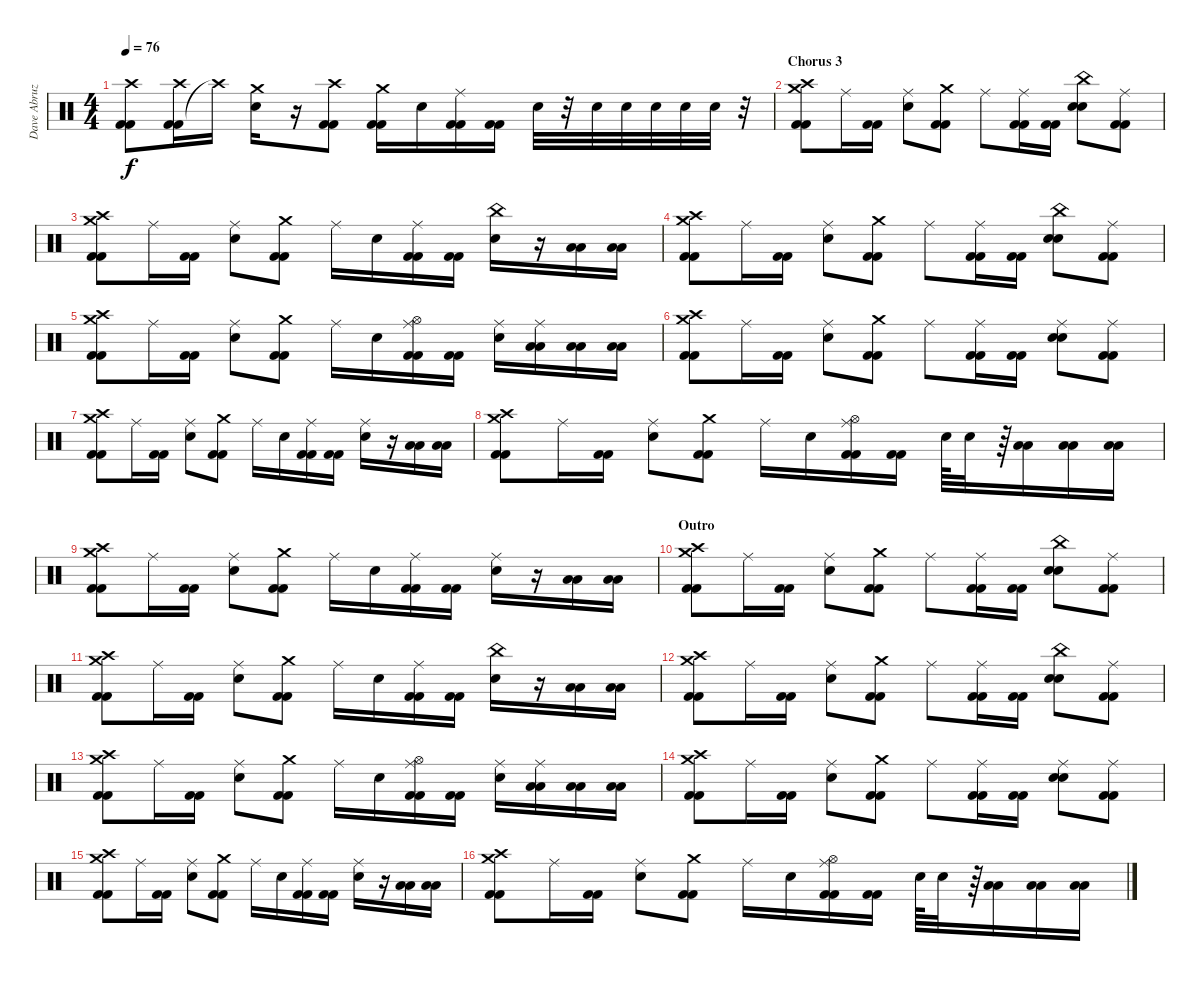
\track ("Dave Abruzzese" "Dave Abruz") {instrument percussion}
\staff {score}
\articulation defaults
\ts (4 4)
\tempo 76
\clef neutral
\ks c
("Kick (hit) 2" "Kick (hit) 2" "Crash high (hit)").8{dy f} ("Kick (hit) 2" "Kick (hit) 2" "Crash high (hit)").16 "Crash high (hit)"{t}.16 ("Snare (hit) 2" "Crash medium (hit)").16 r.16 ("Kick (hit) 2" "Kick (hit) 2" "Crash high (hit)").8 ("Kick (hit) 2" "Kick (hit) 2" "Crash medium (hit)").16 "Snare (hit) 2".16 ("Kick (hit) 2" "Kick (hit) 2" "Ride (middle)").16 ("Kick (hit) 2" "Kick (hit) 2").16 "Snare (hit) 2".32 r.32 "Snare (hit) 2".32 "Snare (hit) 2".32 "Snare (hit) 2".32 "Snare (hit) 2".32 "Snare (hit) 2".32 r.32 |
\section ("" "Chorus 3")
("Crash medium (hit)" "Kick (hit) 2" "Kick (hit) 2" "Crash high (hit)").8 "Ride (middle)".16 ("Kick (hit) 2" "Kick (hit) 2").16 ("Snare (hit) 2" "Ride (middle)").8 ("Kick (hit) 2" "Kick (hit) 2" "Crash medium (hit)").8 "Ride (middle)".8 ("Kick (hit) 2" "Kick (hit) 2" "Ride (middle)").16 ("Kick (hit) 2" "Kick (hit) 2").16 ("Snare (hit) 2" "Snare (hit) 2" "China (hit)").8 ("Kick (hit) 2" "Kick (hit) 2" "Ride (middle)").8 |
("Crash medium (hit)" "Kick (hit) 2" "Kick (hit) 2" "Crash high (hit)").8 "Ride (middle)".16 ("Kick (hit) 2" "Kick (hit) 2").16 ("Snare (hit) 2" "Ride (middle)").8 ("Kick (hit) 2" "Kick (hit) 2" "Crash medium (hit)").8 "Ride (middle)".16 "Snare (hit) 2".16 ("Kick (hit) 2" "Kick (hit) 2" "Ride (middle)").16 ("Kick (hit) 2" "Kick (hit) 2").16 ("Snare (hit) 2" "China (hit)").16 r.16 ("Low Tom (hit)" "Low Tom (hit)").16 ("Low Tom (hit)" "Low Tom (hit)").16 |
("Crash medium (hit)" "Kick (hit) 2" "Kick (hit) 2" "Crash high (hit)").8 "Ride (middle)".16 ("Kick (hit) 2" "Kick (hit) 2").16 ("Snare (hit) 2" "Ride (middle)").8 ("Kick (hit) 2" "Kick (hit) 2" "Crash medium (hit)").8 "Ride (middle)".8 ("Kick (hit) 2" "Kick (hit) 2" "Ride (middle)").16 ("Kick (hit) 2" "Kick (hit) 2").16 ("Snare (hit) 2" "Snare (hit) 2" "China (hit)").8 ("Kick (hit) 2" "Kick (hit) 2" "Ride (middle)").8 |
("Crash medium (hit)" "Kick (hit) 2" "Kick (hit) 2" "Crash high (hit)").8 "Ride (middle)".16 ("Kick (hit) 2" "Kick (hit) 2").16 ("Snare (hit) 2" "Ride (middle)").8 ("Kick (hit) 2" "Kick (hit) 2" "Crash medium (hit)").8 "Ride (middle)".16 "Snare (hit) 2".16 ("Hi-Hat (open)" "Kick (hit) 2" "Kick (hit) 2" "Ride (middle)").16 ("Kick (hit) 2" "Kick (hit) 2").16 ("Snare (hit) 2" "Ride (middle)").16 ("Low Tom (hit)" "Low Tom (hit)" "Ride (middle)").16 ("Low Tom (hit)" "Low Tom (hit)").16 ("Low Tom (hit)" "Low Tom (hit)").16 |
("Crash medium (hit)" "Kick (hit) 2" "Kick (hit) 2" "Crash high (hit)").8 "Ride (middle)".16 ("Kick (hit) 2" "Kick (hit) 2").16 ("Snare (hit) 2" "Ride (middle)").8 ("Kick (hit) 2" "Kick (hit) 2" "Crash medium (hit)").8 "Ride (middle)".8 ("Kick (hit) 2" "Kick (hit) 2" "Ride (middle)").16 ("Kick (hit) 2" "Kick (hit) 2").16 ("Snare (hit) 2" "Snare (hit) 2" "Ride (middle)").8 ("Kick (hit) 2" "Kick (hit) 2" "Ride (middle)").8 |
("Crash medium (hit)" "Kick (hit) 2" "Kick (hit) 2" "Crash high (hit)").8 "Ride (middle)".16 ("Kick (hit) 2" "Kick (hit) 2").16 ("Snare (hit) 2" "Ride (middle)").8 ("Kick (hit) 2" "Kick (hit) 2" "Crash medium (hit)").8 "Ride (middle)".16 "Snare (hit) 2".16 ("Kick (hit) 2" "Kick (hit) 2" "Ride (middle)").16 ("Kick (hit) 2" "Kick (hit) 2").16 ("Snare (hit) 2" "Ride (middle)").16 r.16 ("Low Tom (hit)" "Low Tom (hit)").16 ("Low Tom (hit)" "Low Tom (hit)").16 |
("Crash medium (hit)" "Kick (hit) 2" "Kick (hit) 2" "Crash high (hit)").8 "Ride (middle)".16 ("Kick (hit) 2" "Kick (hit) 2").16 ("Snare (hit) 2" "Ride (middle)").8 ("Kick (hit) 2" "Kick (hit) 2" "Crash medium (hit)").8 "Ride (middle)".16 "Snare (hit) 2".16 ("Hi-Hat (open)" "Kick (hit) 2" "Kick (hit) 2" "Ride (middle)").16 ("Kick (hit) 2" "Kick (hit) 2").16 "Snare (hit) 2".64 "Snare (hit) 2".32 r.64 ("Low Tom (hit)" "Low Tom (hit)").16 ("Low Tom (hit)" "Low Tom (hit)").16 ("Low Tom (hit)" "Low Tom (hit)").16 |
("Crash medium (hit)" "Kick (hit) 2" "Kick (hit) 2" "Crash high (hit)").8 "Ride (middle)".16 ("Kick (hit) 2" "Kick (hit) 2").16 ("Snare (hit) 2" "Ride (middle)").8 ("Kick (hit) 2" "Kick (hit) 2" "Crash medium (hit)").8 "Ride (middle)".16 "Snare (hit) 2".16 ("Kick (hit) 2" "Kick (hit) 2" "Ride (middle)").16 ("Kick (hit) 2" "Kick (hit) 2").16 ("Snare (hit) 2" "Ride (middle)").16 r.16 ("Low Tom (hit)" "Low Tom (hit)").16 ("Low Tom (hit)" "Low Tom (hit)").16 |
\section ("" "Outro")
("Crash medium (hit)" "Kick (hit) 2" "Kick (hit) 2" "Crash high (hit)").8 "Ride (middle)".16 ("Kick (hit) 2" "Kick (hit) 2").16 ("Snare (hit) 2" "Ride (middle)").8 ("Kick (hit) 2" "Kick (hit) 2" "Crash medium (hit)").8 "Ride (middle)".8 ("Kick (hit) 2" "Kick (hit) 2" "Ride (middle)").16 ("Kick (hit) 2" "Kick (hit) 2").16 ("Snare (hit) 2" "Snare (hit) 2" "China (hit)").8 ("Kick (hit) 2" "Kick (hit) 2" "Ride (middle)").8 |
("Crash medium (hit)" "Kick (hit) 2" "Kick (hit) 2" "Crash high (hit)").8 "Ride (middle)".16 ("Kick (hit) 2" "Kick (hit) 2").16 ("Snare (hit) 2" "Ride (middle)").8 ("Kick (hit) 2" "Kick (hit) 2" "Crash medium (hit)").8 "Ride (middle)".16 "Snare (hit) 2".16 ("Kick (hit) 2" "Kick (hit) 2" "Ride (middle)").16 ("Kick (hit) 2" "Kick (hit) 2").16 ("Snare (hit) 2" "China (hit)").16 r.16 ("Low Tom (hit)" "Low Tom (hit)").16 ("Low Tom (hit)" "Low Tom (hit)").16 |
("Crash medium (hit)" "Kick (hit) 2" "Kick (hit) 2" "Crash high (hit)").8 "Ride (middle)".16 ("Kick (hit) 2" "Kick (hit) 2").16 ("Snare (hit) 2" "Ride (middle)").8 ("Kick (hit) 2" "Kick (hit) 2" "Crash medium (hit)").8 "Ride (middle)".8 ("Kick (hit) 2" "Kick (hit) 2" "Ride (middle)").16 ("Kick (hit) 2" "Kick (hit) 2").16 ("Snare (hit) 2" "Snare (hit) 2" "China (hit)").8 ("Kick (hit) 2" "Kick (hit) 2" "Ride (middle)").8 |
("Crash medium (hit)" "Kick (hit) 2" "Kick (hit) 2" "Crash high (hit)").8 "Ride (middle)".16 ("Kick (hit) 2" "Kick (hit) 2").16 ("Snare (hit) 2" "Ride (middle)").8 ("Kick (hit) 2" "Kick (hit) 2" "Crash medium (hit)").8 "Ride (middle)".16 "Snare (hit) 2".16 ("Hi-Hat (open)" "Kick (hit) 2" "Kick (hit) 2" "Ride (middle)").16 ("Kick (hit) 2" "Kick (hit) 2").16 ("Snare (hit) 2" "Ride (middle)").16 ("Low Tom (hit)" "Low Tom (hit)" "Ride (middle)").16 ("Low Tom (hit)" "Low Tom (hit)").16 ("Low Tom (hit)" "Low Tom (hit)").16 |
("Crash medium (hit)" "Kick (hit) 2" "Kick (hit) 2" "Crash high (hit)").8 "Ride (middle)".16 ("Kick (hit) 2" "Kick (hit) 2").16 ("Snare (hit) 2" "Ride (middle)").8 ("Kick (hit) 2" "Kick (hit) 2" "Crash medium (hit)").8 "Ride (middle)".8 ("Kick (hit) 2" "Kick (hit) 2" "Ride (middle)").16 ("Kick (hit) 2" "Kick (hit) 2").16 ("Snare (hit) 2" "Snare (hit) 2" "Ride (middle)").8 ("Kick (hit) 2" "Kick (hit) 2" "Ride (middle)").8 |
("Crash medium (hit)" "Kick (hit) 2" "Kick (hit) 2" "Crash high (hit)").8 "Ride (middle)".16 ("Kick (hit) 2" "Kick (hit) 2").16 ("Snare (hit) 2" "Ride (middle)").8 ("Kick (hit) 2" "Kick (hit) 2" "Crash medium (hit)").8 "Ride (middle)".16 "Snare (hit) 2".16 ("Kick (hit) 2" "Kick (hit) 2" "Ride (middle)").16 ("Kick (hit) 2" "Kick (hit) 2").16 ("Snare (hit) 2" "Ride (middle)").16 r.16 ("Low Tom (hit)" "Low Tom (hit)").16 ("Low Tom (hit)" "Low Tom (hit)").16 |
("Crash medium (hit)" "Kick (hit) 2" "Kick (hit) 2" "Crash high (hit)").8 "Ride (middle)".16 ("Kick (hit) 2" "Kick (hit) 2").16 ("Snare (hit) 2" "Ride (middle)").8 ("Kick (hit) 2" "Kick (hit) 2" "Crash medium (hit)").8 "Ride (middle)".16 "Snare (hit) 2".16 ("Hi-Hat (open)" "Kick (hit) 2" "Kick (hit) 2" "Ride (middle)").16 ("Kick (hit) 2" "Kick (hit) 2").16 "Snare (hit) 2".64 "Snare (hit) 2".32 r.64 ("Low Tom (hit)" "Low Tom (hit)").16 ("Low Tom (hit)" "Low Tom (hit)").16 ("Low Tom (hit)" "Low Tom (hit)").16
